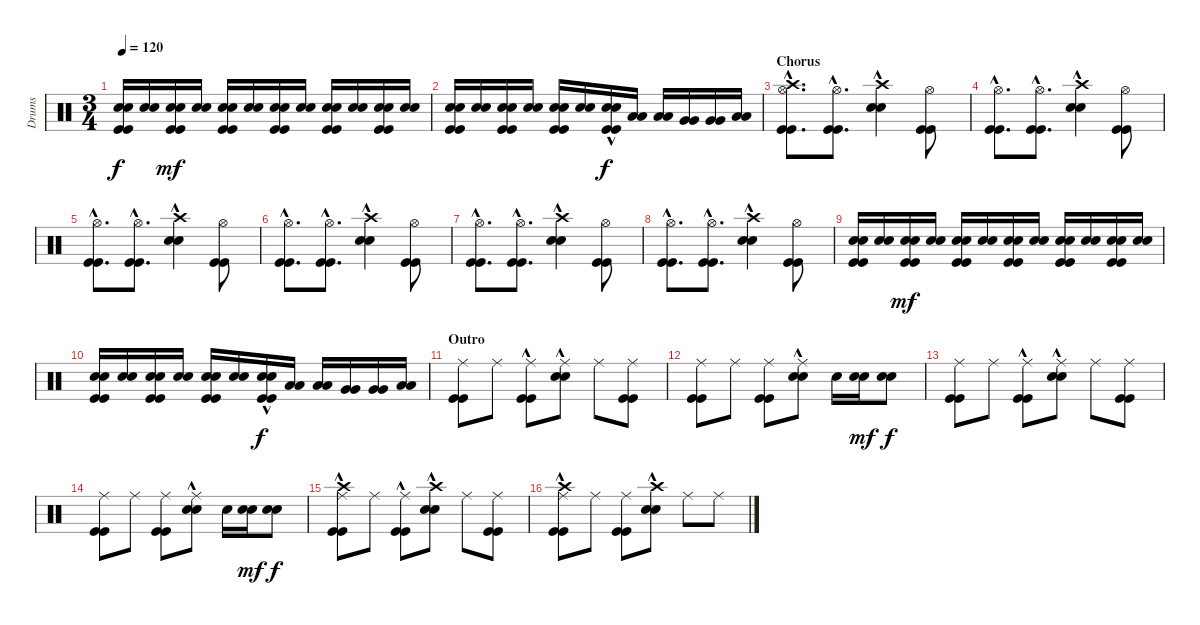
\track ("Drums" "Drums") {instrument percussion}
\staff {score}
\articulation defaults
\ts (3 4)
\tempo 120
\clef neutral
\ks c
("Kick (hit)" "Kick (hit)" "Snare (hit) 2" "Snare (hit) 2").16{dy f} ("Snare (hit) 2" "Snare (hit) 2").16 ("Kick (hit)" "Kick (hit)" "Snare (hit) 2" "Snare (hit) 2").16{dy mf} ("Snare (hit) 2" "Snare (hit) 2").16 ("Kick (hit)" "Kick (hit)" "Snare (hit) 2" "Snare (hit) 2").16 ("Snare (hit) 2" "Snare (hit) 2").16 ("Kick (hit)" "Kick (hit)" "Snare (hit) 2" "Snare (hit) 2").16 ("Snare (hit) 2" "Snare (hit) 2").16 ("Kick (hit)" "Kick (hit)" "Snare (hit) 2" "Snare (hit) 2").16 ("Snare (hit) 2" "Snare (hit) 2").16 ("Kick (hit)" "Kick (hit)" "Snare (hit) 2" "Snare (hit) 2").16 ("Snare (hit) 2" "Snare (hit) 2").16 |
("Kick (hit)" "Kick (hit)" "Snare (hit) 2" "Snare (hit) 2").16 ("Snare (hit) 2" "Snare (hit) 2").16 ("Kick (hit)" "Kick (hit)" "Snare (hit) 2" "Snare (hit) 2").16 ("Snare (hit) 2" "Snare (hit) 2").16 ("Kick (hit)" "Kick (hit)" "Snare (hit) 2" "Snare (hit) 2").16 ("Snare (hit) 2" "Snare (hit) 2").16 ("Kick (hit)"{hac} "Kick (hit)"{hac} "Snare (hit) 2"{hac} "Snare (hit) 2"{hac}).16{dy f} ("Low Tom (hit)" "Low Tom (hit)").16 ("Low Tom (hit)" "Low Tom (hit)").16 ("Very Low Tom (hit)" "Very Low Tom (hit)").16 ("Very Low Tom (hit)" "Very Low Tom (hit)").16 ("Low Floor Tom (hit)" "Low Floor Tom (hit)").16 |
\section ("" "Chorus")
("Kick (hit)"{hac} "Kick (hit)"{hac} "Hi-Hat (open)"{hac} "Crash high (hit)"{hac}).8{d} ("Kick (hit)"{hac} "Kick (hit)"{hac} "Hi-Hat (open)"{hac}).8{d} ("Snare (hit) 2"{hac} "Snare (hit) 2"{hac} "Crash high (hit)"{hac}).4 ("Kick (hit)" "Kick (hit)" "Hi-Hat (open)").8 |
("Kick (hit)"{hac} "Kick (hit)"{hac} "Hi-Hat (open)"{hac}).8{d} ("Kick (hit)"{hac} "Kick (hit)"{hac} "Hi-Hat (open)"{hac}).8{d} ("Snare (hit) 2"{hac} "Snare (hit) 2"{hac} "Crash high (hit)"{hac}).4 ("Kick (hit)" "Kick (hit)" "Hi-Hat (open)").8 |
("Kick (hit)"{hac} "Kick (hit)"{hac} "Hi-Hat (open)"{hac}).8{d} ("Kick (hit)"{hac} "Kick (hit)"{hac} "Hi-Hat (open)"{hac}).8{d} ("Snare (hit) 2"{hac} "Snare (hit) 2"{hac} "Crash high (hit)"{hac}).4 ("Kick (hit)" "Kick (hit)" "Hi-Hat (open)").8 |
("Kick (hit)"{hac} "Kick (hit)"{hac} "Hi-Hat (open)"{hac}).8{d} ("Kick (hit)"{hac} "Kick (hit)"{hac} "Hi-Hat (open)"{hac}).8{d} ("Snare (hit) 2"{hac} "Snare (hit) 2"{hac} "Crash high (hit)"{hac}).4 ("Kick (hit)" "Kick (hit)" "Hi-Hat (open)").8 |
("Kick (hit)"{hac} "Kick (hit)"{hac} "Hi-Hat (open)"{hac}).8{d} ("Kick (hit)"{hac} "Kick (hit)"{hac} "Hi-Hat (open)"{hac}).8{d} ("Snare (hit) 2"{hac} "Snare (hit) 2"{hac} "Crash high (hit)"{hac}).4 ("Kick (hit)" "Kick (hit)" "Hi-Hat (open)").8 |
("Kick (hit)"{hac} "Kick (hit)"{hac} "Hi-Hat (open)"{hac}).8{d} ("Kick (hit)"{hac} "Kick (hit)"{hac} "Hi-Hat (open)"{hac}).8{d} ("Snare (hit) 2"{hac} "Snare (hit) 2"{hac} "Crash high (hit)").4 ("Kick (hit)" "Kick (hit)" "Hi-Hat (open)").8 |
("Kick (hit)" "Kick (hit)" "Snare (hit) 2" "Snare (hit) 2").16 ("Snare (hit) 2" "Snare (hit) 2").16 ("Kick (hit)" "Kick (hit)" "Snare (hit) 2" "Snare (hit) 2").16{dy mf} ("Snare (hit) 2" "Snare (hit) 2").16 ("Kick (hit)" "Kick (hit)" "Snare (hit) 2" "Snare (hit) 2").16 ("Snare (hit) 2" "Snare (hit) 2").16 ("Kick (hit)" "Kick (hit)" "Snare (hit) 2" "Snare (hit) 2").16 ("Snare (hit) 2" "Snare (hit) 2").16 ("Kick (hit)" "Kick (hit)" "Snare (hit) 2" "Snare (hit) 2").16 ("Snare (hit) 2" "Snare (hit) 2").16 ("Kick (hit)" "Kick (hit)" "Snare (hit) 2" "Snare (hit) 2").16 ("Snare (hit) 2" "Snare (hit) 2").16 |
("Kick (hit)" "Kick (hit)" "Snare (hit) 2" "Snare (hit) 2").16 ("Snare (hit) 2" "Snare (hit) 2").16 ("Kick (hit)" "Kick (hit)" "Snare (hit) 2" "Snare (hit) 2").16 ("Snare (hit) 2" "Snare (hit) 2").16 ("Kick (hit)" "Kick (hit)" "Snare (hit) 2" "Snare (hit) 2").16 ("Snare (hit) 2" "Snare (hit) 2").16 ("Kick (hit)"{hac} "Kick (hit)"{hac} "Snare (hit) 2"{hac} "Snare (hit) 2"{hac}).16{dy f} ("Low Tom (hit)" "Low Tom (hit)").16 ("Low Tom (hit)" "Low Tom (hit)").16 ("Very Low Tom (hit)" "Very Low Tom (hit)").16 ("Very Low Tom (hit)" "Very Low Tom (hit)").16 ("Low Floor Tom (hit)" "Low Floor Tom (hit)").16 |
\section ("" "Outro")
("Kick (hit)" "Kick (hit)" "Ride (middle)").8 "Ride (middle)".8 ("Kick (hit)"{hac} "Kick (hit)"{hac} "Ride (middle)").8 ("Snare (hit) 2"{hac} "Snare (hit) 2"{hac} "Ride (middle)").8 "Ride (middle)".8 ("Kick (hit)" "Kick (hit)" "Ride (middle)").8 |
("Kick (hit)" "Kick (hit)" "Ride (middle)").8 "Ride (middle)".8 ("Kick (hit)" "Kick (hit)" "Ride (middle)").8 ("Snare (hit) 2" "Snare (hit) 2" "Ride (middle)"{hac}).8 "Snare (hit) 2".16 ("Snare (hit) 2" "Snare (hit) 2").16{dy mf} ("Snare (hit) 2" "Snare (hit) 2").8{dy f} |
("Kick (hit)" "Kick (hit)" "Ride (middle)").8 "Ride (middle)".8 ("Kick (hit)"{hac} "Kick (hit)"{hac} "Ride (middle)").8 ("Snare (hit) 2"{hac} "Snare (hit) 2"{hac} "Ride (middle)").8 "Ride (middle)".8 ("Kick (hit)" "Kick (hit)" "Ride (middle)").8 |
("Kick (hit)" "Kick (hit)" "Ride (middle)").8 "Ride (middle)".8 ("Kick (hit)" "Kick (hit)" "Ride (middle)").8 ("Snare (hit) 2" "Snare (hit) 2" "Ride (middle)"{hac}).8 "Snare (hit) 2".16 ("Snare (hit) 2" "Snare (hit) 2").16{dy mf} ("Snare (hit) 2" "Snare (hit) 2").8{dy f} |
("Kick (hit)" "Kick (hit)" "Ride (middle)" "Crash high (hit)"{hac}).8 "Ride (middle)".8 ("Kick (hit)"{hac} "Kick (hit)"{hac} "Ride (middle)").8 ("Snare (hit) 2"{hac} "Snare (hit) 2"{hac} "Crash high (hit)"{hac}).8 "Ride (middle)".8 ("Kick (hit)" "Kick (hit)" "Ride (middle)").8 |
("Kick (hit)" "Kick (hit)" "Ride (middle)" "Crash high (hit)"{hac}).8 "Ride (middle)".8 ("Kick (hit)" "Kick (hit)" "Ride (middle)").8 ("Snare (hit) 2"{hac} "Snare (hit) 2"{hac} "Crash high (hit)"{hac}).8 "Ride (middle)".8 "Ride (middle)".8
